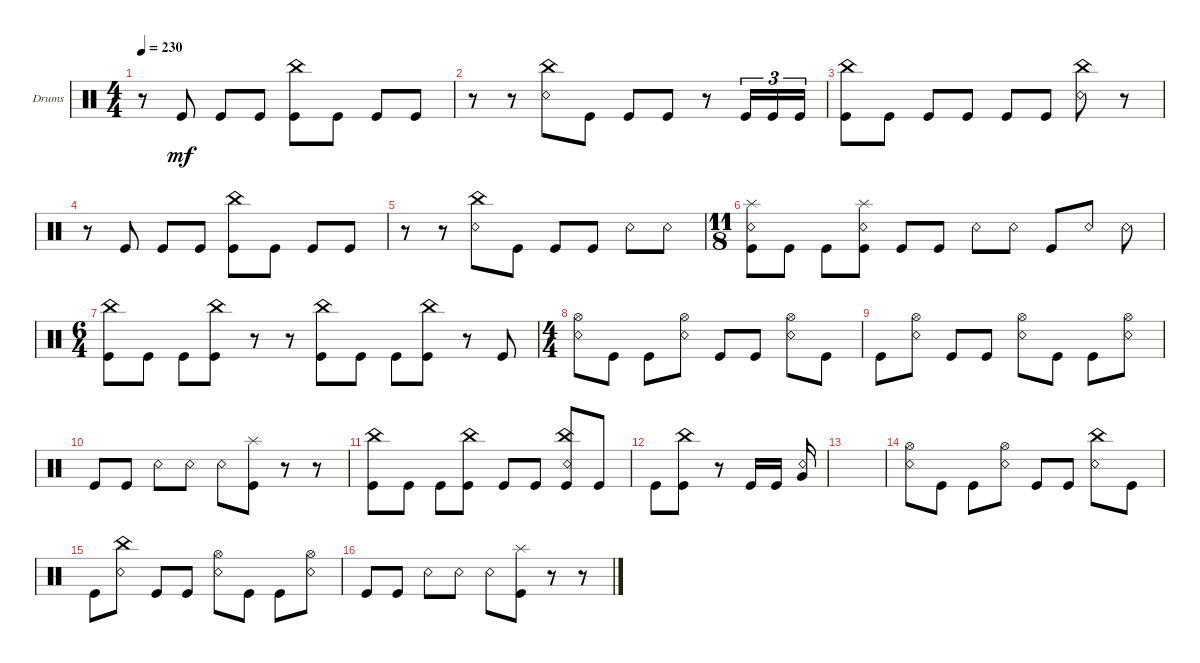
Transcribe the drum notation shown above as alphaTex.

\bracketExtendMode groupsimilarinstruments
\firstSystemTrackNameOrientation horizontal
\otherSystemsTrackNameOrientation horizontal
\track ("Drumkit" "Drums") {instrument percussion}
\staff {score}
\articulation defaults
\ts (4 4)
\tempo 230
\clef neutral
\ks c
r.8{dy mf} "Kick (hit)".8 "Kick (hit)".8 "Kick (hit)".8 ("Kick (hit)" "China (hit)").8 "Kick (hit)".8 "Kick (hit)".8 "Kick (hit)".8 |
r.8 r.8 ("Snare (rim shot)" "China (hit)").8 "Kick (hit)".8 "Kick (hit)".8 "Kick (hit)".8 r.8 "Kick (hit)".16{tu (3 2)} "Kick (hit)".16{tu (3 2)} "Kick (hit)".16{tu (3 2)} |
("Kick (hit)" "China (hit)").8 "Kick (hit)".8 "Kick (hit)".8 "Kick (hit)".8 "Kick (hit)".8 "Kick (hit)".8 ("Snare (rim shot)" "China (hit)").8 r.8 |
r.8 "Kick (hit)".8 "Kick (hit)".8 "Kick (hit)".8 ("Kick (hit)" "China (hit)").8 "Kick (hit)".8 "Kick (hit)".8 "Kick (hit)".8 |
r.8 r.8 ("Snare (rim shot)" "China (hit)").8 "Kick (hit)".8 "Kick (hit)".8 "Kick (hit)".8 "Snare (rim shot)".8 "Snare (rim shot)".8 |
\ts (11 8)
("Kick (hit)" "Snare (rim shot)" "Splash (hit)").8 "Kick (hit)".8 "Kick (hit)".8 ("Kick (hit)" "Snare (rim shot)" "Splash (hit)").8 "Kick (hit)".8 "Kick (hit)".8 "Snare (rim shot)".8 "Snare (rim shot)".8 "Kick (hit)".8 "Snare (rim shot)".8 "Snare (rim shot)".8 |
\ts (6 4)
("Kick (hit)" "China (hit)").8 "Kick (hit)".8 "Kick (hit)".8 ("Kick (hit)" "China (hit)").8 r.8 r.8 ("Kick (hit)" "China (hit)").8 "Kick (hit)".8 "Kick (hit)".8 ("Kick (hit)" "China (hit)").8 r.8 "Kick (hit)".8 |
\ts (4 4)
("Snare (rim shot)" "Hi-Hat (open)").8 "Kick (hit)".8 "Kick (hit)".8 ("Snare (rim shot)" "Hi-Hat (open)").8 "Kick (hit)".8 "Kick (hit)".8 ("Snare (rim shot)" "Hi-Hat (open)").8 "Kick (hit)".8 |
"Kick (hit)".8 ("Snare (rim shot)" "Hi-Hat (open)").8 "Kick (hit)".8 "Kick (hit)".8 ("Snare (rim shot)" "Hi-Hat (open)").8 "Kick (hit)".8 "Kick (hit)".8 ("Snare (rim shot)" "Hi-Hat (open)").8 |
"Kick (hit)".8 "Kick (hit)".8 "Snare (rim shot)".8 "Snare (rim shot)".8 "Snare (rim shot)".8 ("Kick (hit)" "Splash (hit)").8 r.8 r.8 |
("China (hit)" "Kick (hit)").8 "Kick (hit)".8 "Kick (hit)".8 ("Kick (hit)" "China (hit)").8 "Kick (hit)".8 "Kick (hit)".8 ("Kick (hit)" "Snare (rim shot)" "China (hit)").8 "Kick (hit)".8 |
"Kick (hit)".8 ("Kick (hit)" "China (hit)").8 r.8 "Kick (hit)".16 "Kick (hit)".16 ("Snare (rim shot)" "Very Low Tom (hit)").16 |
|
("Snare (rim shot)" "Hi-Hat (open)").8 "Kick (hit)".8 "Kick (hit)".8 ("Snare (rim shot)" "Hi-Hat (open)").8 "Kick (hit)".8 "Kick (hit)".8 ("Snare (rim shot)" "China (hit)").8 "Kick (hit)".8 |
"Kick (hit)".8 ("Snare (rim shot)" "China (hit)").8 "Kick (hit)".8 "Kick (hit)".8 ("Snare (rim shot)" "Hi-Hat (open)").8 "Kick (hit)".8 "Kick (hit)".8 ("Snare (rim shot)" "Hi-Hat (open)").8 |
"Kick (hit)".8 "Kick (hit)".8 "Snare (rim shot)".8 "Snare (rim shot)".8 "Snare (rim shot)".8 ("Kick (hit)" "Splash (hit)").8 r.8 r.8
